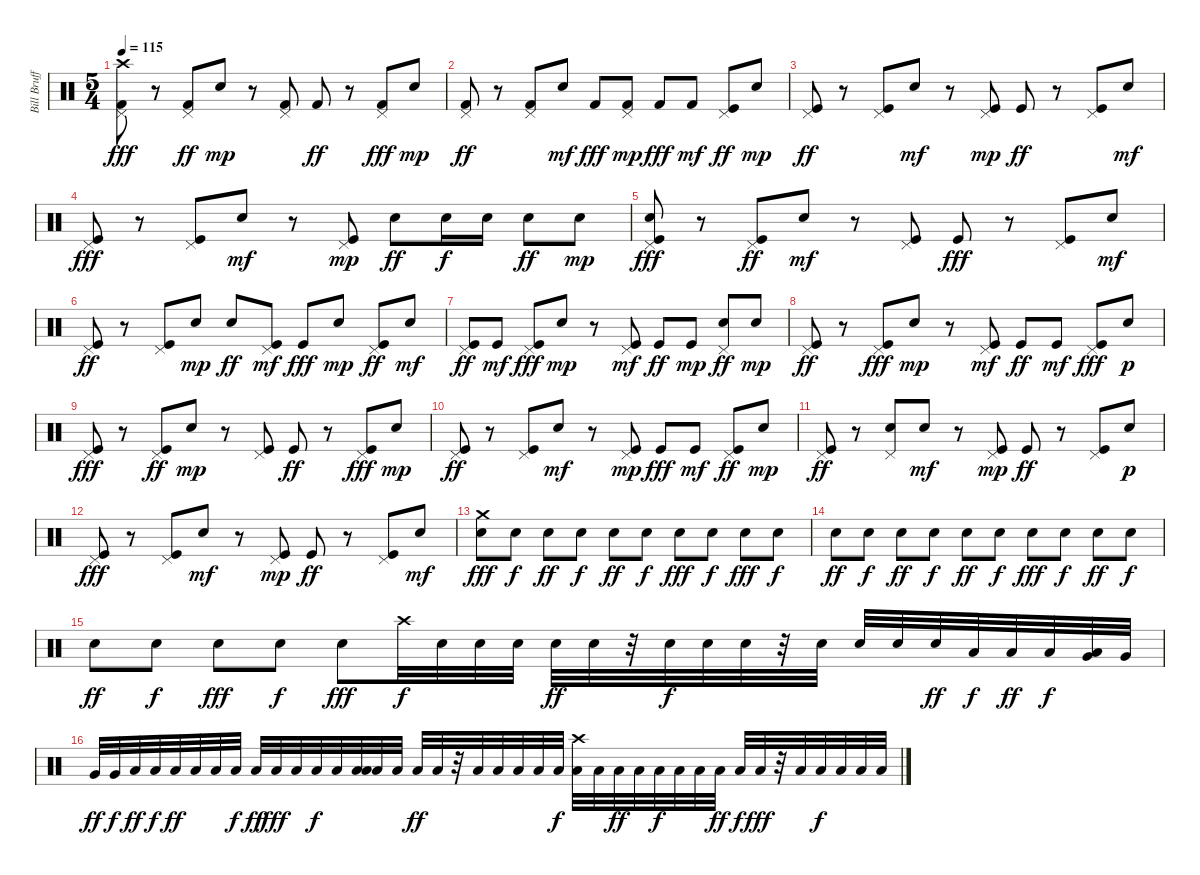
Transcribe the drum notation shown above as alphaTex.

\track ("Bill Brufford Drums" "Bill Bruff") {instrument percussion}
\staff {score}
\articulation defaults
\ts (5 4)
\tempo 115
\clef neutral
\ks c
("Crash high (hit)" "Pedal Hi-Hat (hit)" "Kick (hit) 2").8{dy fff} r.8 ("Pedal Hi-Hat (hit)" "Kick (hit) 2").8{dy ff} "Electric Snare (hit)".8{dy mp} r.8 ("Pedal Hi-Hat (hit)" "Kick (hit) 2").8 "Kick (hit) 2".8{dy ff} r.8 ("Pedal Hi-Hat (hit)" "Kick (hit) 2").8{dy fff} "Electric Snare (hit)".8{dy mp} |
("Pedal Hi-Hat (hit)" "Kick (hit) 2").8{dy ff} r.8 ("Pedal Hi-Hat (hit)" "Kick (hit) 2").8 "Electric Snare (hit)".8{dy mf} "Kick (hit) 2".8{dy fff} ("Pedal Hi-Hat (hit)" "Kick (hit) 2").8{dy mp} "Kick (hit) 2".8{dy fff} "Kick (hit) 2".8{dy mf} ("Pedal Hi-Hat (hit)" "Kick (hit)").8{dy ff} "Electric Snare (hit)".8{dy mp} |
("Pedal Hi-Hat (hit)" "Kick (hit)").8{dy ff} r.8 ("Pedal Hi-Hat (hit)" "Kick (hit)").8 "Electric Snare (hit)".8{dy mf} r.8 ("Pedal Hi-Hat (hit)" "Kick (hit)").8{dy mp} "Kick (hit)".8{dy ff} r.8 ("Pedal Hi-Hat (hit)" "Kick (hit)").8 "Electric Snare (hit)".8{dy mf} |
("Pedal Hi-Hat (hit)" "Kick (hit)").8{dy fff} r.8 ("Pedal Hi-Hat (hit)" "Kick (hit)").8 "Electric Snare (hit)".8{dy mf} r.8 ("Pedal Hi-Hat (hit)" "Kick (hit)").8{dy mp} "Electric Snare (hit)".8{dy ff} "Electric Snare (hit)".16{dy f} "Electric Snare (hit)".16 "Electric Snare (hit)".8{dy ff} "Electric Snare (hit)".8{dy mp} |
("Electric Snare (hit)" "Pedal Hi-Hat (hit)" "Kick (hit)").8{dy fff} r.8 ("Pedal Hi-Hat (hit)" "Kick (hit)").8{dy ff} "Electric Snare (hit)".8{dy mf} r.8 ("Pedal Hi-Hat (hit)" "Kick (hit)").8 "Kick (hit)".8{dy fff} r.8 ("Pedal Hi-Hat (hit)" "Kick (hit)").8 "Electric Snare (hit)".8{dy mf} |
("Pedal Hi-Hat (hit)" "Kick (hit)").8{dy ff} r.8 ("Pedal Hi-Hat (hit)" "Kick (hit)").8 "Electric Snare (hit)".8{dy mp} "Electric Snare (hit)".8{dy ff} ("Pedal Hi-Hat (hit)" "Kick (hit)").8{dy mf} "Kick (hit)".8{dy fff} "Electric Snare (hit)".8{dy mp} ("Pedal Hi-Hat (hit)" "Kick (hit)").8{dy ff} "Electric Snare (hit)".8{dy mf} |
("Pedal Hi-Hat (hit)" "Kick (hit)").8{dy ff} "Kick (hit)".8{dy mf} ("Pedal Hi-Hat (hit)" "Kick (hit)").8{dy fff} "Electric Snare (hit)".8{dy mp} r.8 ("Pedal Hi-Hat (hit)" "Kick (hit)").8{dy mf} "Kick (hit)".8{dy ff} "Kick (hit)".8{dy mp} ("Pedal Hi-Hat (hit)" "Electric Snare (hit)").8{dy ff} "Electric Snare (hit)".8{dy mp} |
("Pedal Hi-Hat (hit)" "Kick (hit)").8{dy ff} r.8 ("Pedal Hi-Hat (hit)" "Kick (hit)").8{dy fff} "Electric Snare (hit)".8{dy mp} r.8 ("Pedal Hi-Hat (hit)" "Kick (hit)").8{dy mf} "Kick (hit)".8{dy ff} "Kick (hit)".8{dy mf} ("Pedal Hi-Hat (hit)" "Kick (hit)").8{dy fff} "Electric Snare (hit)".8{dy p} |
("Pedal Hi-Hat (hit)" "Kick (hit)").8{dy fff} r.8 ("Pedal Hi-Hat (hit)" "Kick (hit)").8{dy ff} "Electric Snare (hit)".8{dy mp} r.8 ("Pedal Hi-Hat (hit)" "Kick (hit)").8 "Kick (hit)".8{dy ff} r.8 ("Pedal Hi-Hat (hit)" "Kick (hit)").8{dy fff} "Electric Snare (hit)".8{dy mp} |
("Pedal Hi-Hat (hit)" "Kick (hit)").8{dy ff} r.8 ("Pedal Hi-Hat (hit)" "Kick (hit)").8 "Electric Snare (hit)".8{dy mf} r.8 ("Pedal Hi-Hat (hit)" "Kick (hit)").8{dy mp} "Kick (hit)".8{dy fff} "Kick (hit)".8{dy mf} ("Pedal Hi-Hat (hit)" "Kick (hit)").8{dy ff} "Electric Snare (hit)".8{dy mp} |
("Pedal Hi-Hat (hit)" "Kick (hit)").8{dy ff} r.8 ("Pedal Hi-Hat (hit)" "Electric Snare (hit)").8 "Electric Snare (hit)".8{dy mf} r.8 ("Pedal Hi-Hat (hit)" "Kick (hit)").8{dy mp} "Kick (hit)".8{dy ff} r.8 ("Pedal Hi-Hat (hit)" "Kick (hit)").8 "Electric Snare (hit)".8{dy p} |
("Pedal Hi-Hat (hit)" "Kick (hit)").8{dy fff} r.8 ("Pedal Hi-Hat (hit)" "Kick (hit)").8 "Electric Snare (hit)".8{dy mf} r.8 ("Pedal Hi-Hat (hit)" "Kick (hit)").8{dy mp} "Kick (hit)".8{dy ff} r.8 ("Pedal Hi-Hat (hit)" "Kick (hit)").8 "Electric Snare (hit)".8{dy mf} |
("Crash medium (hit)" "Snare (hit) 2").8{dy fff} "Snare (hit) 2".8{dy f} "Snare (hit) 2".8{dy ff} "Snare (hit) 2".8{dy f} "Snare (hit) 2".8{dy ff} "Snare (hit) 2".8{dy f} "Snare (hit) 2".8{dy fff} "Snare (hit) 2".8{dy f} "Snare (hit) 2".8{dy fff} "Snare (hit) 2".8{dy f} |
"Snare (hit) 2".8{dy ff} "Snare (hit) 2".8{dy f} "Snare (hit) 2".8{dy ff} "Snare (hit) 2".8{dy f} "Snare (hit) 2".8{dy ff} "Snare (hit) 2".8{dy f} "Snare (hit) 2".8{dy fff} "Snare (hit) 2".8{dy f} "Snare (hit) 2".8{dy ff} "Snare (hit) 2".8{dy f} |
"Snare (hit) 2".8{dy ff} "Snare (hit) 2".8{dy f} "Snare (hit) 2".8{dy fff} "Snare (hit) 2".8{dy f} "Electric Snare (hit)".8{dy fff} "Crash high (hit)".32{dy f} "Electric Snare (hit)".32 "Electric Snare (hit)".32 "Electric Snare (hit)".32 "Electric Snare (hit)".32{dy ff} "Electric Snare (hit)".32 r.32 "Electric Snare (hit)".32{dy f} "Electric Snare (hit)".32 "Electric Snare (hit)".32 r.32 "Electric Snare (hit)".32 "Electric Snare (hit)".32 "Electric Snare (hit)".32 "Electric Snare (hit)".32{dy ff} "Low Tom (hit)".32{dy f} "Low Tom (hit)".32{dy ff} "Low Tom (hit)".32{dy f} ("Low Tom (hit)" "Very Low Tom (hit)").32 "Very Low Tom (hit)".32 |
"Very Low Tom (hit)".32{dy ff} "Very Low Tom (hit)".32{dy f} "Low Floor Tom (hit)".32{dy ff} "Low Floor Tom (hit)".32{dy f} "Low Floor Tom (hit)".32{dy ff} "Low Floor Tom (hit)".32 "Low Floor Tom (hit)".32 "Low Floor Tom (hit)".32{dy f} "Low Floor Tom (hit)".32{dy ff} "Low Floor Tom (hit)".32{dy fff} "Low Floor Tom (hit)".32 "Low Floor Tom (hit)".32{dy f} "Low Floor Tom (hit)".32 ("Low Floor Tom (hit)" "Low Floor Tom (hit)").32 "Low Floor Tom (hit)".32 "Low Floor Tom (hit)".32 "Low Floor Tom (hit)".32{dy ff} "Low Floor Tom (hit)".32 r.32 "Low Floor Tom (hit)".32 "Low Floor Tom (hit)".32 "Low Floor Tom (hit)".32 "Low Floor Tom (hit)".32 "Low Floor Tom (hit)".32{dy f} ("Low Floor Tom (hit)" "Crash high (hit)").32 "Low Floor Tom (hit)".32 "Low Floor Tom (hit)".32{dy ff} "Low Floor Tom (hit)".32 "Low Floor Tom (hit)".32{dy f} "Low Floor Tom (hit)".32 "Low Floor Tom (hit)".32 "Low Floor Tom (hit)".32{dy ff} "Low Floor Tom (hit)".32{dy f} "Low Floor Tom (hit)".32{dy fff} r.32 "Low Floor Tom (hit)".32 "Low Floor Tom (hit)".32{dy f} "Low Floor Tom (hit)".32 "Low Floor Tom (hit)".32 "Low Floor Tom (hit)".32
